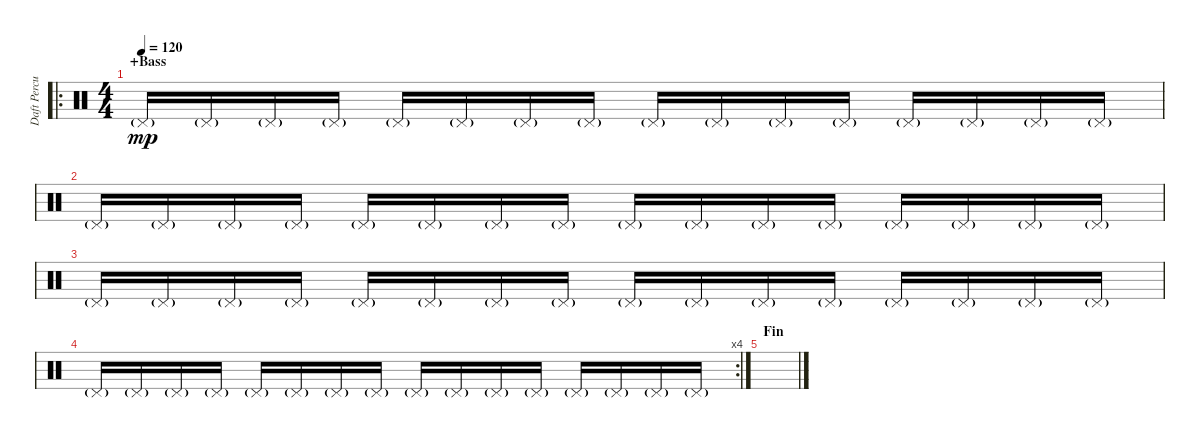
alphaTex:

\track ("Daft Percussion 1" "Daft Percu") {instrument percussion}
\staff {score}
\articulation defaults
\ro
\ts (4 4)
\section ("" "+Bass")
\tempo 120
\clef neutral
\ks c "Pedal Hi-Hat (hit)"{g}.16{dy mp} "Pedal Hi-Hat (hit)"{g}.16 "Pedal Hi-Hat (hit)"{g}.16 "Pedal Hi-Hat (hit)"{g}.16 "Pedal Hi-Hat (hit)"{g}.16 "Pedal Hi-Hat (hit)"{g}.16 "Pedal Hi-Hat (hit)"{g}.16 "Pedal Hi-Hat (hit)"{g}.16 "Pedal Hi-Hat (hit)"{g}.16 "Pedal Hi-Hat (hit)"{g}.16 "Pedal Hi-Hat (hit)"{g}.16 "Pedal Hi-Hat (hit)"{g}.16 "Pedal Hi-Hat (hit)"{g}.16 "Pedal Hi-Hat (hit)"{g}.16 "Pedal Hi-Hat (hit)"{g}.16 "Pedal Hi-Hat (hit)"{g}.16
|
"Pedal Hi-Hat (hit)"{g}.16 "Pedal Hi-Hat (hit)"{g}.16 "Pedal Hi-Hat (hit)"{g}.16 "Pedal Hi-Hat (hit)"{g}.16 "Pedal Hi-Hat (hit)"{g}.16 "Pedal Hi-Hat (hit)"{g}.16 "Pedal Hi-Hat (hit)"{g}.16 "Pedal Hi-Hat (hit)"{g}.16 "Pedal Hi-Hat (hit)"{g}.16 "Pedal Hi-Hat (hit)"{g}.16 "Pedal Hi-Hat (hit)"{g}.16 "Pedal Hi-Hat (hit)"{g}.16 "Pedal Hi-Hat (hit)"{g}.16 "Pedal Hi-Hat (hit)"{g}.16 "Pedal Hi-Hat (hit)"{g}.16 "Pedal Hi-Hat (hit)"{g}.16 |
"Pedal Hi-Hat (hit)"{g}.16 "Pedal Hi-Hat (hit)"{g}.16 "Pedal Hi-Hat (hit)"{g}.16 "Pedal Hi-Hat (hit)"{g}.16 "Pedal Hi-Hat (hit)"{g}.16 "Pedal Hi-Hat (hit)"{g}.16 "Pedal Hi-Hat (hit)"{g}.16 "Pedal Hi-Hat (hit)"{g}.16 "Pedal Hi-Hat (hit)"{g}.16 "Pedal Hi-Hat (hit)"{g}.16 "Pedal Hi-Hat (hit)"{g}.16 "Pedal Hi-Hat (hit)"{g}.16 "Pedal Hi-Hat (hit)"{g}.16 "Pedal Hi-Hat (hit)"{g}.16 "Pedal Hi-Hat (hit)"{g}.16 "Pedal Hi-Hat (hit)"{g}.16 |
\rc 4 "Pedal Hi-Hat (hit)"{g}.16 "Pedal Hi-Hat (hit)"{g}.16 "Pedal Hi-Hat (hit)"{g}.16 "Pedal Hi-Hat (hit)"{g}.16 "Pedal Hi-Hat (hit)"{g}.16 "Pedal Hi-Hat (hit)"{g}.16 "Pedal Hi-Hat (hit)"{g}.16 "Pedal Hi-Hat (hit)"{g}.16 "Pedal Hi-Hat (hit)"{g}.16 "Pedal Hi-Hat (hit)"{g}.16 "Pedal Hi-Hat (hit)"{g}.16 "Pedal Hi-Hat (hit)"{g}.16 "Pedal Hi-Hat (hit)"{g}.16 "Pedal Hi-Hat (hit)"{g}.16 "Pedal Hi-Hat (hit)"{g}.16 "Pedal Hi-Hat (hit)"{g}.16
|
\section ("" "Fin")
